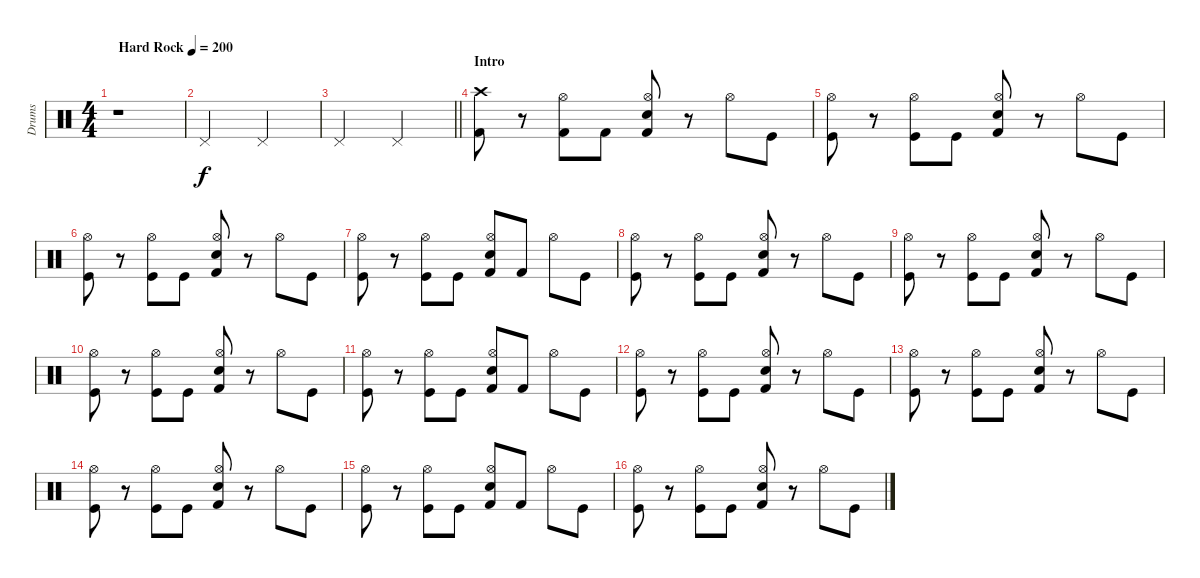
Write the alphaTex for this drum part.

\track ("Drums" "Drums") {instrument percussion}
\staff {score}
\articulation defaults
\ts (4 4)
\tempo (200 "Hard Rock")
\clef neutral
\ks c
r.1{dy f} |
"Pedal Hi-Hat (hit)".2 "Pedal Hi-Hat (hit)".2 |
\barLineRight lightlight "Pedal Hi-Hat (hit)".2 "Pedal Hi-Hat (hit)".2
|
\section ("" "Intro")
("Kick (hit) 2" "Crash high (hit)").8 r.8 ("Kick (hit) 2" "Hi-Hat (open)").8 "Kick (hit) 2".8 ("Kick (hit) 2" "Electric Snare (hit)" "Hi-Hat (open)").8 r.8 "Hi-Hat (open)".8 "Kick (hit)".8 |
("Kick (hit)" "Hi-Hat (open)").8 r.8 ("Kick (hit)" "Hi-Hat (open)").8 "Kick (hit)".8 ("Kick (hit) 2" "Electric Snare (hit)" "Hi-Hat (open)").8 r.8 "Hi-Hat (open)".8 "Kick (hit)".8 |
("Kick (hit)" "Hi-Hat (open)").8 r.8 ("Kick (hit)" "Hi-Hat (open)").8 "Kick (hit)".8 ("Kick (hit) 2" "Electric Snare (hit)" "Hi-Hat (open)").8 r.8 "Hi-Hat (open)".8 "Kick (hit)".8 |
("Kick (hit)" "Hi-Hat (open)").8 r.8 ("Kick (hit)" "Hi-Hat (open)").8 "Kick (hit)".8 ("Kick (hit) 2" "Electric Snare (hit)" "Hi-Hat (open)").8 "Kick (hit) 2".8 "Hi-Hat (open)".8 "Kick (hit)".8 |
("Kick (hit)" "Hi-Hat (open)").8 r.8 ("Kick (hit)" "Hi-Hat (open)").8 "Kick (hit)".8 ("Kick (hit) 2" "Electric Snare (hit)" "Hi-Hat (open)").8 r.8 "Hi-Hat (open)".8 "Kick (hit)".8 |
("Kick (hit)" "Hi-Hat (open)").8 r.8 ("Kick (hit)" "Hi-Hat (open)").8 "Kick (hit)".8 ("Kick (hit) 2" "Electric Snare (hit)" "Hi-Hat (open)").8 r.8 "Hi-Hat (open)".8 "Kick (hit)".8 |
("Kick (hit)" "Hi-Hat (open)").8 r.8 ("Kick (hit)" "Hi-Hat (open)").8 "Kick (hit)".8 ("Kick (hit) 2" "Electric Snare (hit)" "Hi-Hat (open)").8 r.8 "Hi-Hat (open)".8 "Kick (hit)".8 |
("Kick (hit)" "Hi-Hat (open)").8 r.8 ("Kick (hit)" "Hi-Hat (open)").8 "Kick (hit)".8 ("Kick (hit) 2" "Electric Snare (hit)" "Hi-Hat (open)").8 "Kick (hit) 2".8 "Hi-Hat (open)".8 "Kick (hit)".8 |
("Kick (hit)" "Hi-Hat (open)").8 r.8 ("Kick (hit)" "Hi-Hat (open)").8 "Kick (hit)".8 ("Kick (hit) 2" "Electric Snare (hit)" "Hi-Hat (open)").8 r.8 "Hi-Hat (open)".8 "Kick (hit)".8 |
("Kick (hit)" "Hi-Hat (open)").8 r.8 ("Kick (hit)" "Hi-Hat (open)").8 "Kick (hit)".8 ("Kick (hit) 2" "Electric Snare (hit)" "Hi-Hat (open)").8 r.8 "Hi-Hat (open)".8 "Kick (hit)".8 |
("Kick (hit)" "Hi-Hat (open)").8 r.8 ("Kick (hit)" "Hi-Hat (open)").8 "Kick (hit)".8 ("Kick (hit) 2" "Electric Snare (hit)" "Hi-Hat (open)").8 r.8 "Hi-Hat (open)".8 "Kick (hit)".8 |
("Kick (hit)" "Hi-Hat (open)").8 r.8 ("Kick (hit)" "Hi-Hat (open)").8 "Kick (hit)".8 ("Kick (hit) 2" "Electric Snare (hit)" "Hi-Hat (open)").8 "Kick (hit) 2".8 "Hi-Hat (open)".8 "Kick (hit)".8 |
("Kick (hit)" "Hi-Hat (open)").8 r.8 ("Kick (hit)" "Hi-Hat (open)").8 "Kick (hit)".8 ("Kick (hit) 2" "Electric Snare (hit)" "Hi-Hat (open)").8 r.8 "Hi-Hat (open)".8 "Kick (hit)".8
